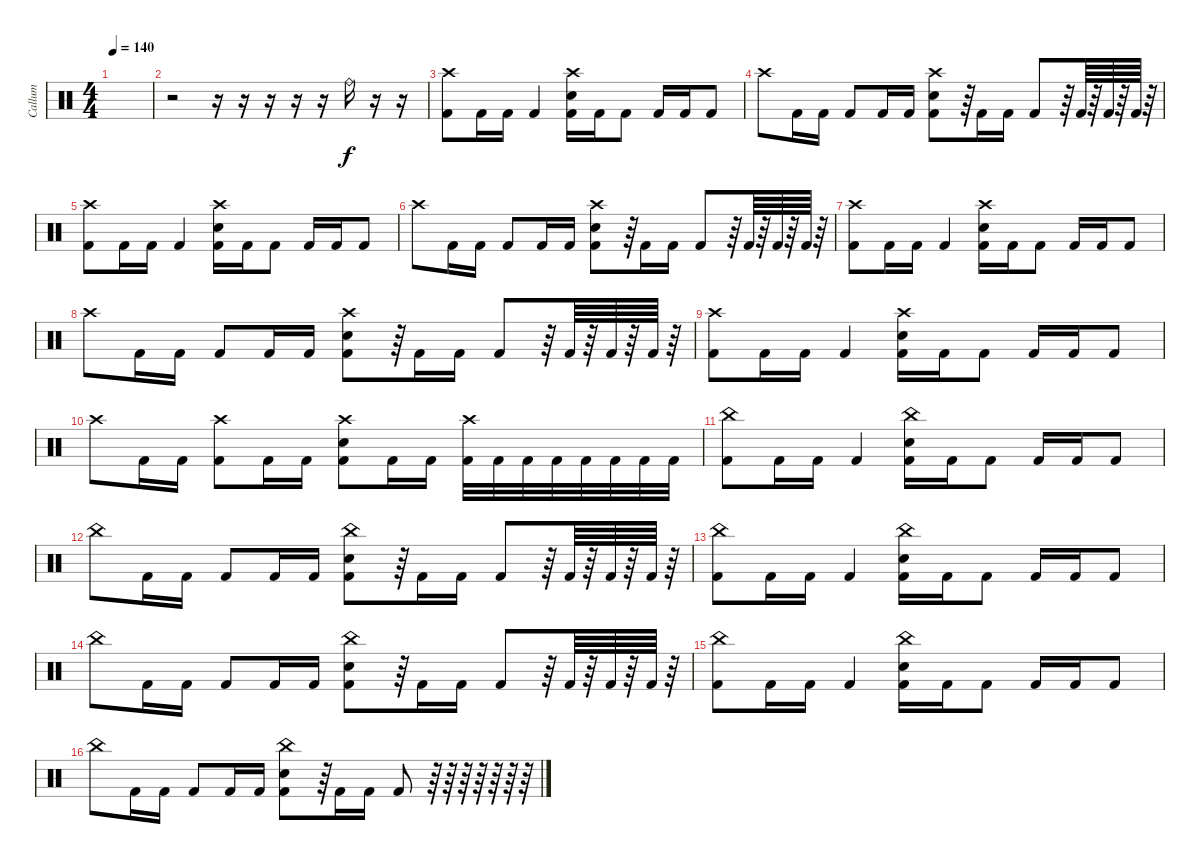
\track ("Callum" "Callum") {instrument percussion}
\staff {score}
\articulation defaults
\ts (4 4)
\tempo 140
\clef neutral
\ks c
|
r.2 r.16 r.16 r.16 r.16 r.16 "Ride (bell)".16 r.16 r.16 |
("Crash high (hit)" "Kick (hit) 2").8 "Kick (hit) 2".16 "Kick (hit) 2".16 "Kick (hit) 2".4 ("Crash high (hit)" "Electric Snare (hit)" "Kick (hit) 2").16 "Kick (hit) 2".16 "Kick (hit) 2".8 "Kick (hit) 2".16 "Kick (hit) 2".16 "Kick (hit) 2".8 |
"Crash high (hit)".8 "Kick (hit) 2".16 "Kick (hit) 2".16 "Kick (hit) 2".8 "Kick (hit) 2".16 "Kick (hit) 2".16 ("Crash high (hit)" "Electric Snare (hit)" "Kick (hit) 2").8 r.64 "Kick (hit) 2".16 "Kick (hit) 2".16 "Kick (hit) 2".8 r.64 "Kick (hit) 2".64 r.64 "Kick (hit) 2".64 r.64 "Kick (hit) 2".64 r.64 |
("Crash high (hit)" "Kick (hit) 2").8 "Kick (hit) 2".16 "Kick (hit) 2".16 "Kick (hit) 2".4 ("Crash high (hit)" "Electric Snare (hit)" "Kick (hit) 2").16 "Kick (hit) 2".16 "Kick (hit) 2".8 "Kick (hit) 2".16 "Kick (hit) 2".16 "Kick (hit) 2".8 |
"Crash high (hit)".8 "Kick (hit) 2".16 "Kick (hit) 2".16 "Kick (hit) 2".8 "Kick (hit) 2".16 "Kick (hit) 2".16 ("Crash high (hit)" "Electric Snare (hit)" "Kick (hit) 2").8 r.64 "Kick (hit) 2".16 "Kick (hit) 2".16 "Kick (hit) 2".8 r.64 "Kick (hit) 2".64 r.64 "Kick (hit) 2".64 r.64 "Kick (hit) 2".64 r.64 |
("Crash high (hit)" "Kick (hit) 2").8 "Kick (hit) 2".16 "Kick (hit) 2".16 "Kick (hit) 2".4 ("Crash high (hit)" "Electric Snare (hit)" "Kick (hit) 2").16 "Kick (hit) 2".16 "Kick (hit) 2".8 "Kick (hit) 2".16 "Kick (hit) 2".16 "Kick (hit) 2".8 |
"Crash high (hit)".8 "Kick (hit) 2".16 "Kick (hit) 2".16 "Kick (hit) 2".8 "Kick (hit) 2".16 "Kick (hit) 2".16 ("Crash high (hit)" "Electric Snare (hit)" "Kick (hit) 2").8 r.64 "Kick (hit) 2".16 "Kick (hit) 2".16 "Kick (hit) 2".8 r.64 "Kick (hit) 2".64 r.64 "Kick (hit) 2".64 r.64 "Kick (hit) 2".64 r.64 |
("Crash high (hit)" "Kick (hit) 2").8 "Kick (hit) 2".16 "Kick (hit) 2".16 "Kick (hit) 2".4 ("Crash high (hit)" "Electric Snare (hit)" "Kick (hit) 2").16 "Kick (hit) 2".16 "Kick (hit) 2".8 "Kick (hit) 2".16 "Kick (hit) 2".16 "Kick (hit) 2".8 |
"Crash high (hit)".8 "Kick (hit) 2".16 "Kick (hit) 2".16 ("Crash high (hit)" "Kick (hit) 2").8 "Kick (hit) 2".16 "Kick (hit) 2".16 ("Crash high (hit)" "Electric Snare (hit)" "Kick (hit) 2").8 "Kick (hit) 2".16 "Kick (hit) 2".16 ("Crash high (hit)" "Kick (hit) 2").32 "Kick (hit) 2".32 "Kick (hit) 2".32 "Kick (hit) 2".32 "Kick (hit) 2".32 "Kick (hit) 2".32 "Kick (hit) 2".32 "Kick (hit) 2".32 |
("China (hit)" "Kick (hit) 2").8 "Kick (hit) 2".16 "Kick (hit) 2".16 "Kick (hit) 2".4 ("China (hit)" "Electric Snare (hit)" "Kick (hit) 2").16 "Kick (hit) 2".16 "Kick (hit) 2".8 "Kick (hit) 2".16 "Kick (hit) 2".16 "Kick (hit) 2".8 |
"China (hit)".8 "Kick (hit) 2".16 "Kick (hit) 2".16 "Kick (hit) 2".8 "Kick (hit) 2".16 "Kick (hit) 2".16 ("China (hit)" "Electric Snare (hit)" "Kick (hit) 2").8 r.64 "Kick (hit) 2".16 "Kick (hit) 2".16 "Kick (hit) 2".8 r.64 "Kick (hit) 2".64 r.64 "Kick (hit) 2".64 r.64 "Kick (hit) 2".64 r.64 |
("China (hit)" "Kick (hit) 2").8 "Kick (hit) 2".16 "Kick (hit) 2".16 "Kick (hit) 2".4 ("China (hit)" "Electric Snare (hit)" "Kick (hit) 2").16 "Kick (hit) 2".16 "Kick (hit) 2".8 "Kick (hit) 2".16 "Kick (hit) 2".16 "Kick (hit) 2".8 |
"China (hit)".8 "Kick (hit) 2".16 "Kick (hit) 2".16 "Kick (hit) 2".8 "Kick (hit) 2".16 "Kick (hit) 2".16 ("China (hit)" "Electric Snare (hit)" "Kick (hit) 2").8 r.64 "Kick (hit) 2".16 "Kick (hit) 2".16 "Kick (hit) 2".8 r.64 "Kick (hit) 2".64 r.64 "Kick (hit) 2".64 r.64 "Kick (hit) 2".64 r.64 |
("China (hit)" "Kick (hit) 2").8 "Kick (hit) 2".16 "Kick (hit) 2".16 "Kick (hit) 2".4 ("China (hit)" "Electric Snare (hit)" "Kick (hit) 2").16 "Kick (hit) 2".16 "Kick (hit) 2".8 "Kick (hit) 2".16 "Kick (hit) 2".16 "Kick (hit) 2".8 |
"China (hit)".8 "Kick (hit) 2".16 "Kick (hit) 2".16 "Kick (hit) 2".8 "Kick (hit) 2".16 "Kick (hit) 2".16 ("China (hit)" "Electric Snare (hit)" "Kick (hit) 2").8 r.64 "Kick (hit) 2".16 "Kick (hit) 2".16 "Kick (hit) 2".8 r.64 r.64 r.64 r.64 r.64 r.64 r.64
